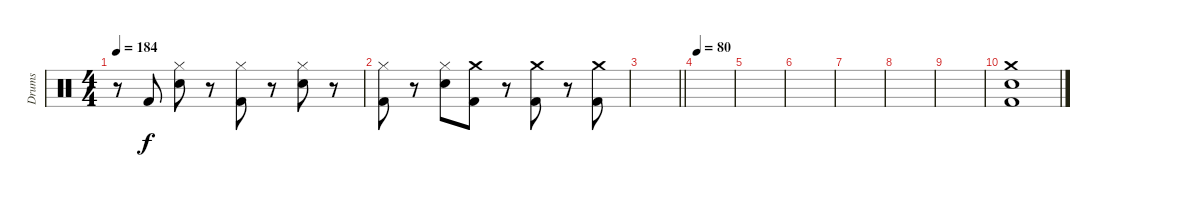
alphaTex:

\track ("Drums" "Drums") {instrument percussion}
\staff {score}
\articulation defaults
\ts (4 4)
\tempo 184
\clef neutral
\ks c
r.8{dy f} "Kick (hit) 2".8 ("Hi-Hat (closed)" "Snare (hit) 2").8 r.8 ("Hi-Hat (closed)" "Kick (hit) 2").8 r.8 ("Hi-Hat (closed)" "Snare (hit) 2").8 r.8 |
("Hi-Hat (closed)" "Kick (hit) 2").8 r.8 ("Hi-Hat (closed)" "Snare (hit) 2").8 ("Crash medium (hit)" "Kick (hit) 2").8 r.8 ("Crash medium (hit)" "Kick (hit) 2").8 r.8 ("Crash medium (hit)" "Kick (hit) 2").8 |
\barLineRight lightlight
|
\tempo 80
|
|
|
|
|
|
("Crash medium (hit)" "Snare (hit) 2" "Kick (hit) 2").1
